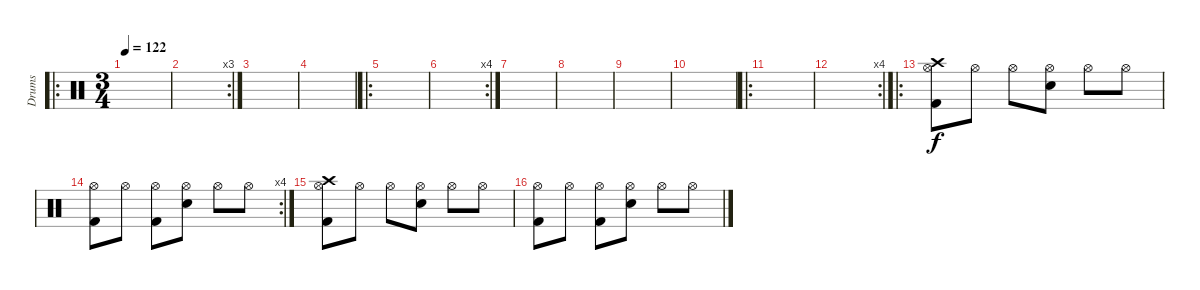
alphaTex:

\track ("Drums" "Drums") {instrument percussion}
\staff {score}
\articulation defaults
\ro
\ts (3 4)
\tempo 122
\clef neutral
\ks c
|
\rc 3
|
|
|
\ro
|
\rc 4
|
|
|
|
|
\ro
|
\rc 4
|
\ro
("Hi-Hat (open)" "Kick (hit) 2" "Crash high (hit)").8 "Hi-Hat (open)".8 "Hi-Hat (open)".8 ("Hi-Hat (open)" "Snare (hit) 2").8 "Hi-Hat (open)".8 "Hi-Hat (open)".8 |
\rc 4
("Hi-Hat (open)" "Kick (hit) 2").8 "Hi-Hat (open)".8 ("Hi-Hat (open)" "Kick (hit) 2").8 ("Hi-Hat (open)" "Snare (hit) 2").8 "Hi-Hat (open)".8 "Hi-Hat (open)".8 |
("Hi-Hat (open)" "Kick (hit) 2" "Crash high (hit)").8 "Hi-Hat (open)".8 "Hi-Hat (open)".8 ("Hi-Hat (open)" "Snare (hit) 2").8 "Hi-Hat (open)".8 "Hi-Hat (open)".8 |
("Hi-Hat (open)" "Kick (hit) 2").8 "Hi-Hat (open)".8 ("Hi-Hat (open)" "Kick (hit) 2").8 ("Hi-Hat (open)" "Snare (hit) 2").8 "Hi-Hat (open)".8 "Hi-Hat (open)".8
